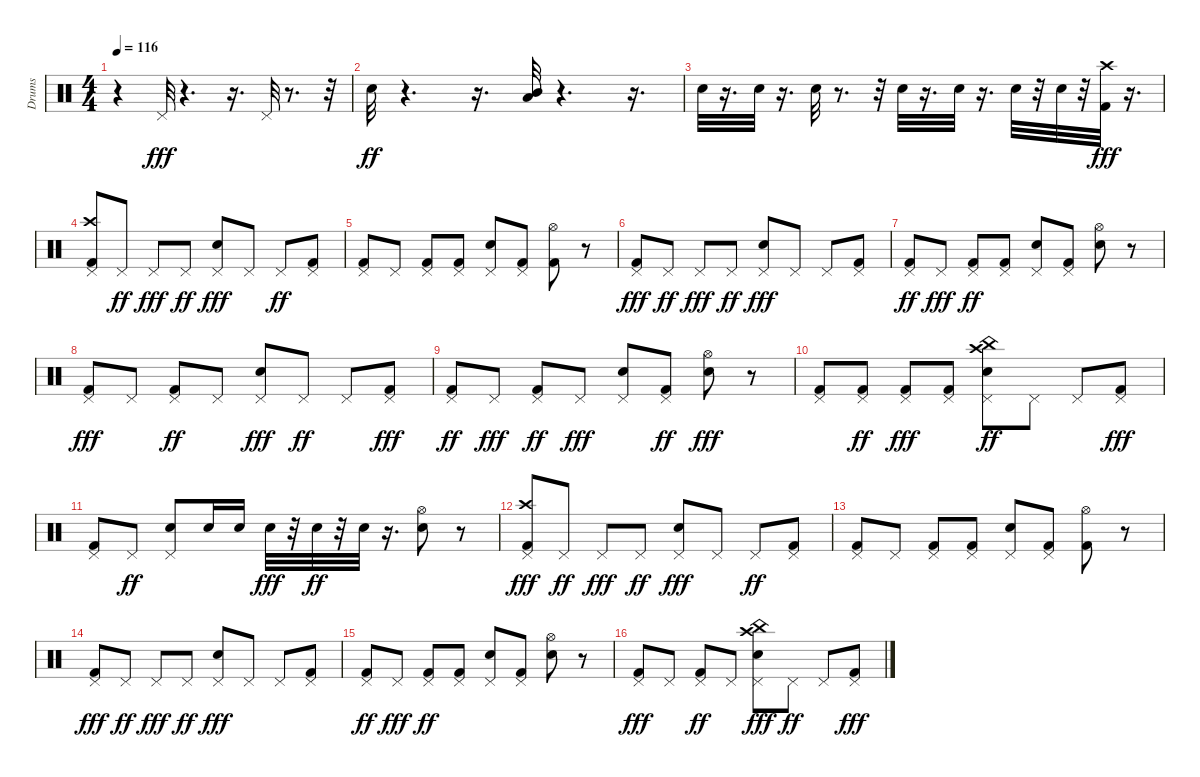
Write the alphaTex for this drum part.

\track ("Drums" "Drums") {instrument percussion}
\staff {score}
\articulation defaults
\ts (4 4)
\tempo 116
\clef neutral
\ks c
r.4{dy fff} "Pedal Hi-Hat (hit)".32 r.4{d} r.16{d} "Pedal Hi-Hat (hit)".32 r.8{d} r.32 |
"Snare (hit) 2".32{dy ff} r.4{d} r.16{d} ("Mid Tom (hit)" "Low Floor Tom (hit)").32 r.4{d} r.16{d} |
"Snare (hit) 2".32 r.16{d} "Snare (hit) 2".32 r.16{d} "Snare (hit) 2".32 r.8{d} r.32 "Snare (hit) 2".32 r.16{d} "Snare (hit) 2".32 r.16{d} "Snare (hit) 2".32 r.32 "Snare (hit) 2".32 r.32 ("Crash high (hit)" "Kick (hit) 2").32{dy fff} r.16{d} |
("Kick (hit) 2" "Crash high (hit)" "Pedal Hi-Hat (hit)").8 "Pedal Hi-Hat (hit)".8{dy ff} "Pedal Hi-Hat (hit)".8{dy fff} "Pedal Hi-Hat (hit)".8{dy ff} ("Snare (hit) 2" "Pedal Hi-Hat (hit)").8{dy fff} "Pedal Hi-Hat (hit)".8 "Pedal Hi-Hat (hit)".8{dy ff} ("Kick (hit) 2" "Pedal Hi-Hat (hit)").8 |
("Kick (hit) 2" "Pedal Hi-Hat (hit)").8 "Pedal Hi-Hat (hit)".8 ("Kick (hit) 2" "Pedal Hi-Hat (hit)").8 ("Kick (hit) 2" "Pedal Hi-Hat (hit)").8 ("Pedal Hi-Hat (hit)" "Snare (hit) 2").8 ("Kick (hit) 2" "Pedal Hi-Hat (hit)").8 ("Kick (hit) 2" "Hi-Hat (open)").8 r.8 |
("Kick (hit) 2" "Pedal Hi-Hat (hit)").8{dy fff} "Pedal Hi-Hat (hit)".8{dy ff} "Pedal Hi-Hat (hit)".8{dy fff} "Pedal Hi-Hat (hit)".8{dy ff} ("Snare (hit) 2" "Pedal Hi-Hat (hit)").8{dy fff} "Pedal Hi-Hat (hit)".8 "Pedal Hi-Hat (hit)".8 ("Kick (hit) 2" "Pedal Hi-Hat (hit)").8 |
("Kick (hit) 2" "Pedal Hi-Hat (hit)").8{dy ff} "Pedal Hi-Hat (hit)".8{dy fff} ("Kick (hit) 2" "Pedal Hi-Hat (hit)").8{dy ff} ("Kick (hit) 2" "Pedal Hi-Hat (hit)").8 ("Snare (hit) 2" "Pedal Hi-Hat (hit)").8 ("Kick (hit) 2" "Pedal Hi-Hat (hit)").8 ("Snare (hit) 2" "Hi-Hat (open)").8 r.8 |
("Kick (hit) 2" "Pedal Hi-Hat (hit)").8{dy fff} "Pedal Hi-Hat (hit)".8 ("Kick (hit) 2" "Pedal Hi-Hat (hit)").8{dy ff} "Pedal Hi-Hat (hit)".8 ("Snare (hit) 2" "Pedal Hi-Hat (hit)").8{dy fff} "Pedal Hi-Hat (hit)".8{dy ff} "Pedal Hi-Hat (hit)".8 ("Kick (hit) 2" "Pedal Hi-Hat (hit)").8{dy fff} |
("Kick (hit) 2" "Pedal Hi-Hat (hit)").8{dy ff} "Pedal Hi-Hat (hit)".8{dy fff} ("Kick (hit) 2" "Pedal Hi-Hat (hit)").8{dy ff} "Pedal Hi-Hat (hit)".8{dy fff} ("Snare (hit) 2" "Pedal Hi-Hat (hit)").8 ("Kick (hit) 2" "Pedal Hi-Hat (hit)").8{dy ff} ("Snare (hit) 2" "Hi-Hat (open)").8{dy fff} r.8 |
("Kick (hit) 2" "Pedal Hi-Hat (hit)").8 ("Kick (hit) 2" "Pedal Hi-Hat (hit)").8{dy ff} ("Kick (hit) 2" "Pedal Hi-Hat (hit)").8{dy fff} ("Kick (hit) 2" "Pedal Hi-Hat (hit)").8 ("China (hit)" "Crash high (hit)" "Snare (hit) 2" "Pedal Hi-Hat (hit)").8{dy ff} "Pedal Hi-Hat (hit)".8 "Pedal Hi-Hat (hit)".8 ("Kick (hit) 2" "Pedal Hi-Hat (hit)").8{dy fff} |
("Kick (hit) 2" "Pedal Hi-Hat (hit)").8 "Pedal Hi-Hat (hit)".8{dy ff} ("Snare (hit) 2" "Pedal Hi-Hat (hit)").8 "Snare (hit) 2".16 "Snare (hit) 2".16 "Snare (hit) 2".32{dy fff} r.32 "Snare (hit) 2".32{dy ff} r.32 "Snare (hit) 2".32 r.16{d} ("Snare (hit) 2" "Hi-Hat (open)").8 r.8 |
("Kick (hit) 2" "Crash high (hit)" "Pedal Hi-Hat (hit)").8{dy fff} "Pedal Hi-Hat (hit)".8{dy ff} "Pedal Hi-Hat (hit)".8{dy fff} "Pedal Hi-Hat (hit)".8{dy ff} ("Snare (hit) 2" "Pedal Hi-Hat (hit)").8{dy fff} "Pedal Hi-Hat (hit)".8 "Pedal Hi-Hat (hit)".8{dy ff} ("Kick (hit) 2" "Pedal Hi-Hat (hit)").8 |
("Kick (hit) 2" "Pedal Hi-Hat (hit)").8 "Pedal Hi-Hat (hit)".8 ("Kick (hit) 2" "Pedal Hi-Hat (hit)").8 ("Kick (hit) 2" "Pedal Hi-Hat (hit)").8 ("Pedal Hi-Hat (hit)" "Snare (hit) 2").8 ("Kick (hit) 2" "Pedal Hi-Hat (hit)").8 ("Kick (hit) 2" "Hi-Hat (open)").8 r.8 |
("Kick (hit) 2" "Pedal Hi-Hat (hit)").8{dy fff} "Pedal Hi-Hat (hit)".8{dy ff} "Pedal Hi-Hat (hit)".8{dy fff} "Pedal Hi-Hat (hit)".8{dy ff} ("Snare (hit) 2" "Pedal Hi-Hat (hit)").8{dy fff} "Pedal Hi-Hat (hit)".8 "Pedal Hi-Hat (hit)".8 ("Kick (hit) 2" "Pedal Hi-Hat (hit)").8 |
("Kick (hit) 2" "Pedal Hi-Hat (hit)").8{dy ff} "Pedal Hi-Hat (hit)".8{dy fff} ("Kick (hit) 2" "Pedal Hi-Hat (hit)").8{dy ff} ("Kick (hit) 2" "Pedal Hi-Hat (hit)").8 ("Snare (hit) 2" "Pedal Hi-Hat (hit)").8 ("Kick (hit) 2" "Pedal Hi-Hat (hit)").8 ("Snare (hit) 2" "Hi-Hat (open)").8 r.8 |
("Kick (hit) 2" "Pedal Hi-Hat (hit)").8{dy fff} "Pedal Hi-Hat (hit)".8 ("Kick (hit) 2" "Pedal Hi-Hat (hit)").8{dy ff} "Pedal Hi-Hat (hit)".8 ("China (hit)" "Crash high (hit)" "Snare (hit) 2" "Pedal Hi-Hat (hit)").8{dy fff} "Pedal Hi-Hat (hit)".8{dy ff} "Pedal Hi-Hat (hit)".8 ("Kick (hit) 2" "Pedal Hi-Hat (hit)").8{dy fff}
